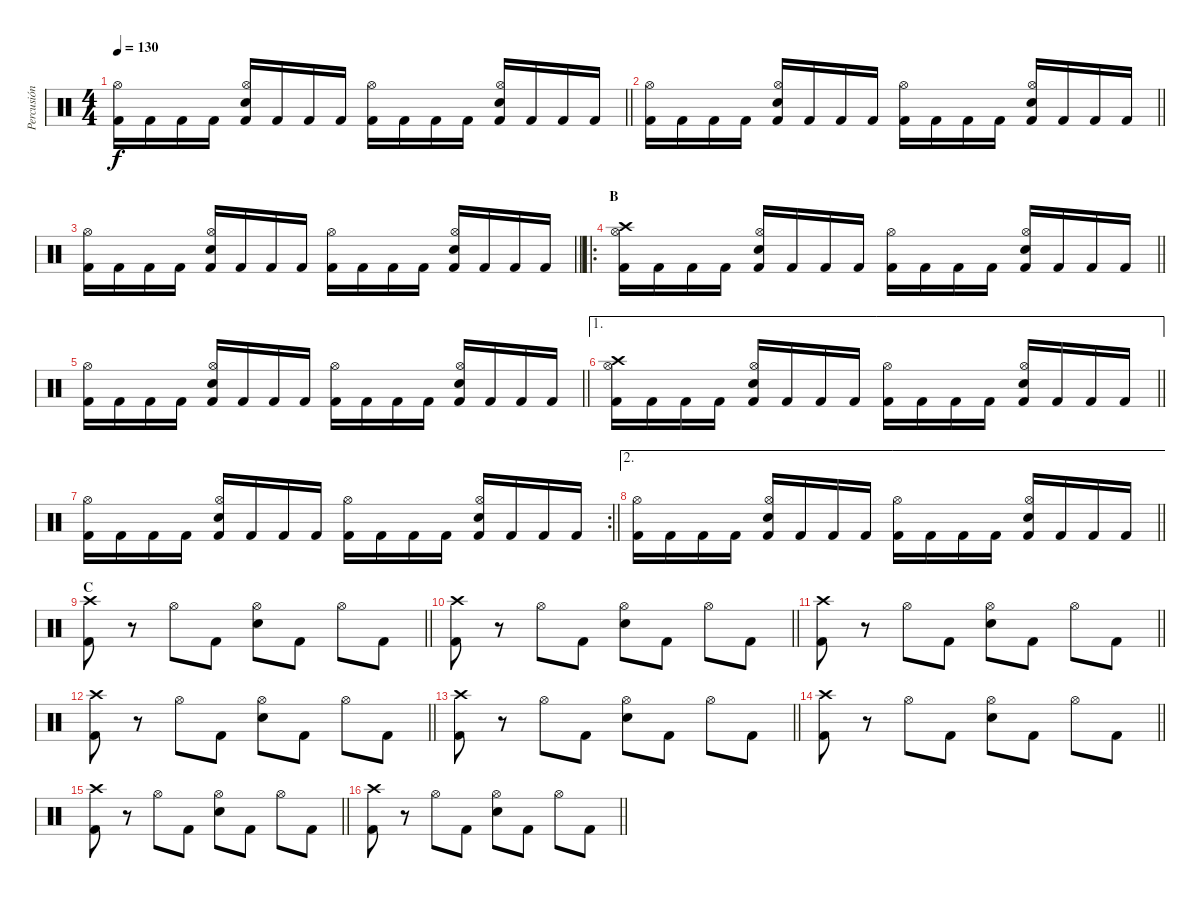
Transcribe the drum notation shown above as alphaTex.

\track ("Percusión" "Percusión") {mute instrument percussion}
\staff {score}
\articulation defaults
\ts (4 4)
\tempo 130
\clef neutral
\barLineRight lightlight
\ks c
("Kick (hit) 2" "Hi-Hat (open)").16{dy f} "Kick (hit) 2".16 "Kick (hit) 2".16 "Kick (hit) 2".16 ("Kick (hit) 2" "Electric Snare (hit)" "Hi-Hat (open)").16 "Kick (hit) 2".16 "Kick (hit) 2".16 "Kick (hit) 2".16 ("Kick (hit) 2" "Hi-Hat (open)").16 "Kick (hit) 2".16 "Kick (hit) 2".16 "Kick (hit) 2".16 ("Kick (hit) 2" "Electric Snare (hit)" "Hi-Hat (open)").16 "Kick (hit) 2".16 "Kick (hit) 2".16 "Kick (hit) 2".16 |
\barLineRight lightlight
("Kick (hit) 2" "Hi-Hat (open)").16 "Kick (hit) 2".16 "Kick (hit) 2".16 "Kick (hit) 2".16 ("Kick (hit) 2" "Electric Snare (hit)" "Hi-Hat (open)").16 "Kick (hit) 2".16 "Kick (hit) 2".16 "Kick (hit) 2".16 ("Kick (hit) 2" "Hi-Hat (open)").16 "Kick (hit) 2".16 "Kick (hit) 2".16 "Kick (hit) 2".16 ("Kick (hit) 2" "Electric Snare (hit)" "Hi-Hat (open)").16 "Kick (hit) 2".16 "Kick (hit) 2".16 "Kick (hit) 2".16 |
\barLineRight lightlight
("Kick (hit) 2" "Hi-Hat (open)").16 "Kick (hit) 2".16 "Kick (hit) 2".16 "Kick (hit) 2".16 ("Kick (hit) 2" "Electric Snare (hit)" "Hi-Hat (open)").16 "Kick (hit) 2".16 "Kick (hit) 2".16 "Kick (hit) 2".16 ("Kick (hit) 2" "Hi-Hat (open)").16 "Kick (hit) 2".16 "Kick (hit) 2".16 "Kick (hit) 2".16 ("Kick (hit) 2" "Electric Snare (hit)" "Hi-Hat (open)").16 "Kick (hit) 2".16 "Kick (hit) 2".16 "Kick (hit) 2".16 |
\ro
\section ("" "B")
\barLineRight lightlight
("Kick (hit) 2" "Hi-Hat (open)" "Crash high (hit)").16 "Kick (hit) 2".16 "Kick (hit) 2".16 "Kick (hit) 2".16 ("Kick (hit) 2" "Electric Snare (hit)" "Hi-Hat (open)").16 "Kick (hit) 2".16 "Kick (hit) 2".16 "Kick (hit) 2".16 ("Kick (hit) 2" "Hi-Hat (open)").16 "Kick (hit) 2".16 "Kick (hit) 2".16 "Kick (hit) 2".16 ("Kick (hit) 2" "Electric Snare (hit)" "Hi-Hat (open)").16 "Kick (hit) 2".16 "Kick (hit) 2".16 "Kick (hit) 2".16 |
\barLineRight lightlight
("Kick (hit) 2" "Hi-Hat (open)").16 "Kick (hit) 2".16 "Kick (hit) 2".16 "Kick (hit) 2".16 ("Kick (hit) 2" "Electric Snare (hit)" "Hi-Hat (open)").16 "Kick (hit) 2".16 "Kick (hit) 2".16 "Kick (hit) 2".16 ("Kick (hit) 2" "Hi-Hat (open)").16 "Kick (hit) 2".16 "Kick (hit) 2".16 "Kick (hit) 2".16 ("Kick (hit) 2" "Electric Snare (hit)" "Hi-Hat (open)").16 "Kick (hit) 2".16 "Kick (hit) 2".16 "Kick (hit) 2".16 |
\ae 1
\barLineRight lightlight
("Kick (hit) 2" "Hi-Hat (open)" "Crash high (hit)").16 "Kick (hit) 2".16 "Kick (hit) 2".16 "Kick (hit) 2".16 ("Kick (hit) 2" "Electric Snare (hit)" "Hi-Hat (open)").16 "Kick (hit) 2".16 "Kick (hit) 2".16 "Kick (hit) 2".16 ("Kick (hit) 2" "Hi-Hat (open)").16 "Kick (hit) 2".16 "Kick (hit) 2".16 "Kick (hit) 2".16 ("Kick (hit) 2" "Electric Snare (hit)" "Hi-Hat (open)").16 "Kick (hit) 2".16 "Kick (hit) 2".16 "Kick (hit) 2".16 |
\rc 2
\barLineRight lightlight
("Kick (hit) 2" "Hi-Hat (open)").16 "Kick (hit) 2".16 "Kick (hit) 2".16 "Kick (hit) 2".16 ("Kick (hit) 2" "Electric Snare (hit)" "Hi-Hat (open)").16 "Kick (hit) 2".16 "Kick (hit) 2".16 "Kick (hit) 2".16 ("Kick (hit) 2" "Hi-Hat (open)").16 "Kick (hit) 2".16 "Kick (hit) 2".16 "Kick (hit) 2".16 ("Kick (hit) 2" "Electric Snare (hit)" "Hi-Hat (open)").16 "Kick (hit) 2".16 "Kick (hit) 2".16 "Kick (hit) 2".16 |
\ae 2
\barLineRight lightlight
("Kick (hit) 2" "Hi-Hat (open)").16 "Kick (hit) 2".16 "Kick (hit) 2".16 "Kick (hit) 2".16 ("Kick (hit) 2" "Electric Snare (hit)" "Hi-Hat (open)").16 "Kick (hit) 2".16 "Kick (hit) 2".16 "Kick (hit) 2".16 ("Kick (hit) 2" "Hi-Hat (open)").16 "Kick (hit) 2".16 "Kick (hit) 2".16 "Kick (hit) 2".16 ("Kick (hit) 2" "Electric Snare (hit)" "Hi-Hat (open)").16 "Kick (hit) 2".16 "Kick (hit) 2".16 "Kick (hit) 2".16 |
\section ("" "C")
\barLineRight lightlight
("Kick (hit) 2" "Crash high (hit)").8 r.8 "Hi-Hat (open)".8 "Kick (hit) 2".8 ("Electric Snare (hit)" "Hi-Hat (open)").8 "Kick (hit) 2".8 "Hi-Hat (open)".8 "Kick (hit) 2".8 |
\barLineRight lightlight
("Kick (hit) 2" "Crash high (hit)").8 r.8 "Hi-Hat (open)".8 "Kick (hit) 2".8 ("Electric Snare (hit)" "Hi-Hat (open)").8 "Kick (hit) 2".8 "Hi-Hat (open)".8 "Kick (hit) 2".8 |
\barLineRight lightlight
("Kick (hit) 2" "Crash high (hit)").8 r.8 "Hi-Hat (open)".8 "Kick (hit) 2".8 ("Electric Snare (hit)" "Hi-Hat (open)").8 "Kick (hit) 2".8 "Hi-Hat (open)".8 "Kick (hit) 2".8 |
\barLineRight lightlight
("Kick (hit) 2" "Crash high (hit)").8 r.8 "Hi-Hat (open)".8 "Kick (hit) 2".8 ("Electric Snare (hit)" "Hi-Hat (open)").8 "Kick (hit) 2".8 "Hi-Hat (open)".8 "Kick (hit) 2".8 |
\barLineRight lightlight
("Kick (hit) 2" "Crash high (hit)").8 r.8 "Hi-Hat (open)".8 "Kick (hit) 2".8 ("Electric Snare (hit)" "Hi-Hat (open)").8 "Kick (hit) 2".8 "Hi-Hat (open)".8 "Kick (hit) 2".8 |
\barLineRight lightlight
("Kick (hit) 2" "Crash high (hit)").8 r.8 "Hi-Hat (open)".8 "Kick (hit) 2".8 ("Electric Snare (hit)" "Hi-Hat (open)").8 "Kick (hit) 2".8 "Hi-Hat (open)".8 "Kick (hit) 2".8 |
\barLineRight lightlight
("Kick (hit) 2" "Crash high (hit)").8 r.8 "Hi-Hat (open)".8 "Kick (hit) 2".8 ("Electric Snare (hit)" "Hi-Hat (open)").8 "Kick (hit) 2".8 "Hi-Hat (open)".8 "Kick (hit) 2".8 |
\barLineRight lightlight
("Kick (hit) 2" "Crash high (hit)").8 r.8 "Hi-Hat (open)".8 "Kick (hit) 2".8 ("Electric Snare (hit)" "Hi-Hat (open)").8 "Kick (hit) 2".8 "Hi-Hat (open)".8 "Kick (hit) 2".8
